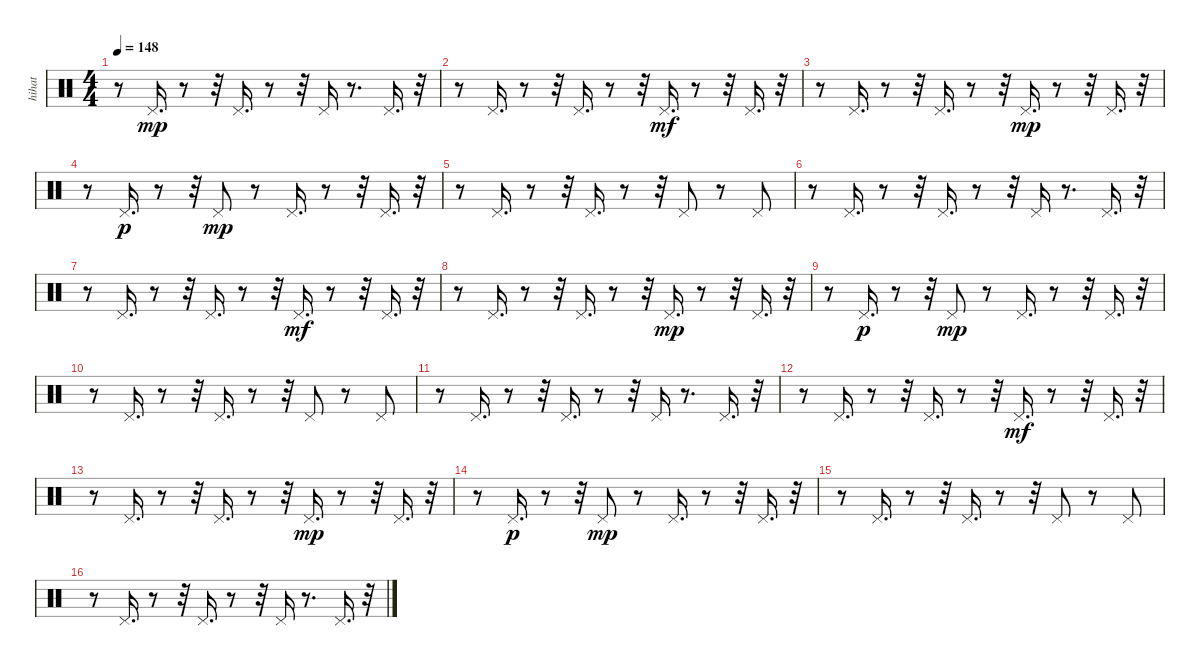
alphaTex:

\track ("hihat               " "hihat     ") {instrument percussion}
\staff {score}
\articulation defaults
\ts (4 4)
\tempo 148
\clef neutral
\ks c
r.8{dy mp} "Pedal Hi-Hat (hit)".16{d} r.8 r.32 "Pedal Hi-Hat (hit)".16{d} r.8 r.32 "Pedal Hi-Hat (hit)".16 r.8{d} "Pedal Hi-Hat (hit)".16{d} r.32 |
r.8 "Pedal Hi-Hat (hit)".16{d} r.8 r.32 "Pedal Hi-Hat (hit)".16{d} r.8 r.32 "Pedal Hi-Hat (hit)".16{d dy mf} r.8 r.32 "Pedal Hi-Hat (hit)".16{d} r.32 |
r.8 "Pedal Hi-Hat (hit)".16{d} r.8 r.32 "Pedal Hi-Hat (hit)".16{d} r.8 r.32 "Pedal Hi-Hat (hit)".16{d dy mp} r.8 r.32 "Pedal Hi-Hat (hit)".16{d} r.32 |
r.8 "Pedal Hi-Hat (hit)".16{d dy p} r.8 r.32 "Pedal Hi-Hat (hit)".8{dy mp} r.8 "Pedal Hi-Hat (hit)".16{d} r.8 r.32 "Pedal Hi-Hat (hit)".16{d} r.32 |
r.8 "Pedal Hi-Hat (hit)".16{d} r.8 r.32 "Pedal Hi-Hat (hit)".16{d} r.8 r.32 "Pedal Hi-Hat (hit)".8 r.8 "Pedal Hi-Hat (hit)".8 |
r.8 "Pedal Hi-Hat (hit)".16{d} r.8 r.32 "Pedal Hi-Hat (hit)".16{d} r.8 r.32 "Pedal Hi-Hat (hit)".16 r.8{d} "Pedal Hi-Hat (hit)".16{d} r.32 |
r.8 "Pedal Hi-Hat (hit)".16{d} r.8 r.32 "Pedal Hi-Hat (hit)".16{d} r.8 r.32 "Pedal Hi-Hat (hit)".16{d dy mf} r.8 r.32 "Pedal Hi-Hat (hit)".16{d} r.32 |
r.8 "Pedal Hi-Hat (hit)".16{d} r.8 r.32 "Pedal Hi-Hat (hit)".16{d} r.8 r.32 "Pedal Hi-Hat (hit)".16{d dy mp} r.8 r.32 "Pedal Hi-Hat (hit)".16{d} r.32 |
r.8 "Pedal Hi-Hat (hit)".16{d dy p} r.8 r.32 "Pedal Hi-Hat (hit)".8{dy mp} r.8 "Pedal Hi-Hat (hit)".16{d} r.8 r.32 "Pedal Hi-Hat (hit)".16{d} r.32 |
r.8 "Pedal Hi-Hat (hit)".16{d} r.8 r.32 "Pedal Hi-Hat (hit)".16{d} r.8 r.32 "Pedal Hi-Hat (hit)".8 r.8 "Pedal Hi-Hat (hit)".8 |
r.8 "Pedal Hi-Hat (hit)".16{d} r.8 r.32 "Pedal Hi-Hat (hit)".16{d} r.8 r.32 "Pedal Hi-Hat (hit)".16 r.8{d} "Pedal Hi-Hat (hit)".16{d} r.32 |
r.8 "Pedal Hi-Hat (hit)".16{d} r.8 r.32 "Pedal Hi-Hat (hit)".16{d} r.8 r.32 "Pedal Hi-Hat (hit)".16{d dy mf} r.8 r.32 "Pedal Hi-Hat (hit)".16{d} r.32 |
r.8 "Pedal Hi-Hat (hit)".16{d} r.8 r.32 "Pedal Hi-Hat (hit)".16{d} r.8 r.32 "Pedal Hi-Hat (hit)".16{d dy mp} r.8 r.32 "Pedal Hi-Hat (hit)".16{d} r.32 |
r.8 "Pedal Hi-Hat (hit)".16{d dy p} r.8 r.32 "Pedal Hi-Hat (hit)".8{dy mp} r.8 "Pedal Hi-Hat (hit)".16{d} r.8 r.32 "Pedal Hi-Hat (hit)".16{d} r.32 |
r.8 "Pedal Hi-Hat (hit)".16{d} r.8 r.32 "Pedal Hi-Hat (hit)".16{d} r.8 r.32 "Pedal Hi-Hat (hit)".8 r.8 "Pedal Hi-Hat (hit)".8 |
r.8 "Pedal Hi-Hat (hit)".16{d} r.8 r.32 "Pedal Hi-Hat (hit)".16{d} r.8 r.32 "Pedal Hi-Hat (hit)".16 r.8{d} "Pedal Hi-Hat (hit)".16{d} r.32
